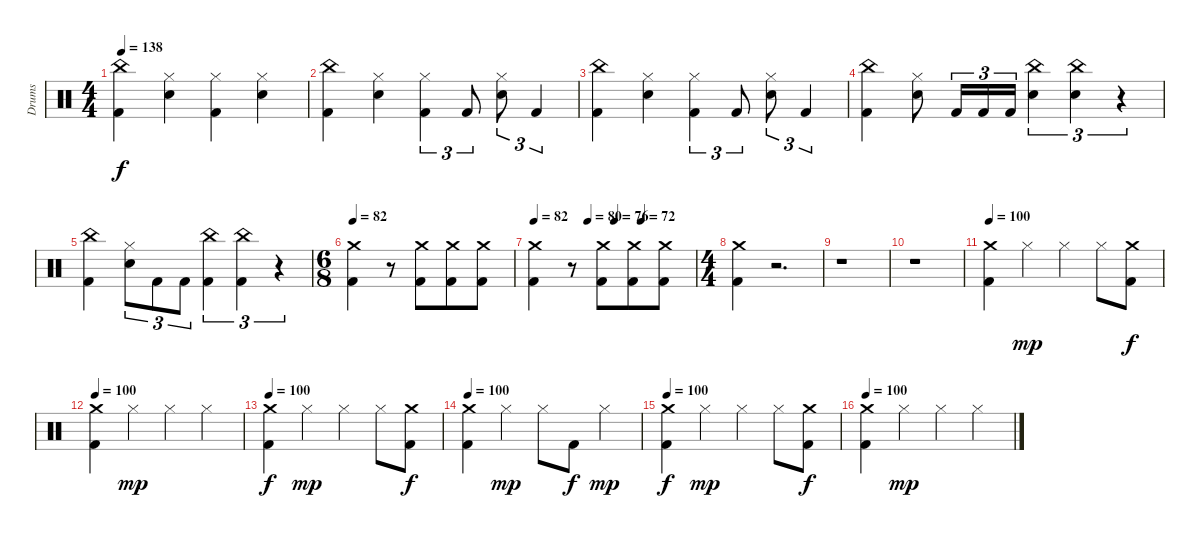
\track ("Drums" "Drums") {instrument percussion}
\staff {score}
\articulation defaults
\ts (4 4)
\tempo 138
\clef neutral
\ks c
("Kick (hit) 2" "China (hit)").4{dy f} ("Hi-Hat (closed)" "Snare (hit) 2").4 ("Hi-Hat (closed)" "Kick (hit) 2").4 ("Hi-Hat (closed)" "Snare (hit) 2").4 |
("Kick (hit) 2" "China (hit)").4 ("Hi-Hat (closed)" "Snare (hit) 2").4 ("Hi-Hat (closed)" "Kick (hit) 2").4{tu (3 2)} "Kick (hit) 2".8{tu (3 2)} ("Hi-Hat (closed)" "Snare (hit) 2").8{tu (3 2)} "Kick (hit) 2".4{tu (3 2)} |
("Kick (hit) 2" "China (hit)").4 ("Hi-Hat (closed)" "Snare (hit) 2").4 ("Hi-Hat (closed)" "Kick (hit) 2").4{tu (3 2)} "Kick (hit) 2".8{tu (3 2)} ("Hi-Hat (closed)" "Snare (hit) 2").8{tu (3 2)} "Kick (hit) 2".4{tu (3 2)} |
("Kick (hit) 2" "China (hit)").4 ("Snare (hit) 2" "Hi-Hat (closed)").8 "Kick (hit) 2".16{tu (3 2)} "Kick (hit) 2".16{tu (3 2)} "Kick (hit) 2".16{tu (3 2)} ("China (hit)" "Snare (hit) 2").4{tu (3 2)} ("China (hit)" "Snare (hit) 2").4{tu (3 2)} r.4{tu (3 2)} |
("Kick (hit) 2" "China (hit)").4 ("Snare (hit) 2" "Hi-Hat (closed)").8{tu (3 2)} "Kick (hit) 2".8{tu (3 2)} "Kick (hit) 2".8{tu (3 2)} ("China (hit)" "Kick (hit) 2").4{tu (3 2)} ("China (hit)" "Kick (hit) 2").4{tu (3 2)} r.4{tu (3 2)} |
\ts (6 8)
\tempo 82
("Crash medium (hit)" "Kick (hit) 2").4 r.8 ("Kick (hit) 2" "Crash medium (hit)").8 ("Kick (hit) 2" "Crash medium (hit)").8 ("Kick (hit) 2" "Crash medium (hit)").8 |
\tempo 82
\tempo (80 0.3333333333333333)
\tempo (76 0.5)
\tempo (72 0.6666666666666666)
("Crash medium (hit)" "Kick (hit) 2").4 r.8 ("Kick (hit) 2" "Crash medium (hit)").8 ("Kick (hit) 2" "Crash medium (hit)").8 ("Kick (hit) 2" "Crash medium (hit)").8 |
\ts (4 4)
("Crash medium (hit)" "Kick (hit) 2").4 r.2{d} |
r.1 |
r.1 |
\tempo 100
("Crash medium (hit)" "Kick (hit) 2").4 "Hi-Hat (closed)".4{dy mp} "Hi-Hat (closed)".4 "Hi-Hat (closed)".8 ("Crash medium (hit)" "Kick (hit) 2").8{dy f} |
\tempo 100
("Crash medium (hit)" "Kick (hit) 2").4 "Hi-Hat (closed)".4{dy mp} "Hi-Hat (closed)".4 "Hi-Hat (closed)".4 |
\tempo 100
("Crash medium (hit)" "Kick (hit) 2").4{dy f} "Hi-Hat (closed)".4{dy mp} "Hi-Hat (closed)".4 "Hi-Hat (closed)".8 ("Crash medium (hit)" "Kick (hit) 2").8{dy f} |
\tempo 100
("Crash medium (hit)" "Kick (hit) 2").4 "Hi-Hat (closed)".4{dy mp} "Hi-Hat (closed)".8 "Kick (hit) 2".8{dy f} "Hi-Hat (closed)".4{dy mp} |
\tempo 100
("Crash medium (hit)" "Kick (hit) 2").4{dy f} "Hi-Hat (closed)".4{dy mp} "Hi-Hat (closed)".4 "Hi-Hat (closed)".8 ("Crash medium (hit)" "Kick (hit) 2").8{dy f} |
\tempo 100
("Crash medium (hit)" "Kick (hit) 2").4 "Hi-Hat (closed)".4{dy mp} "Hi-Hat (closed)".4 "Hi-Hat (closed)".4
